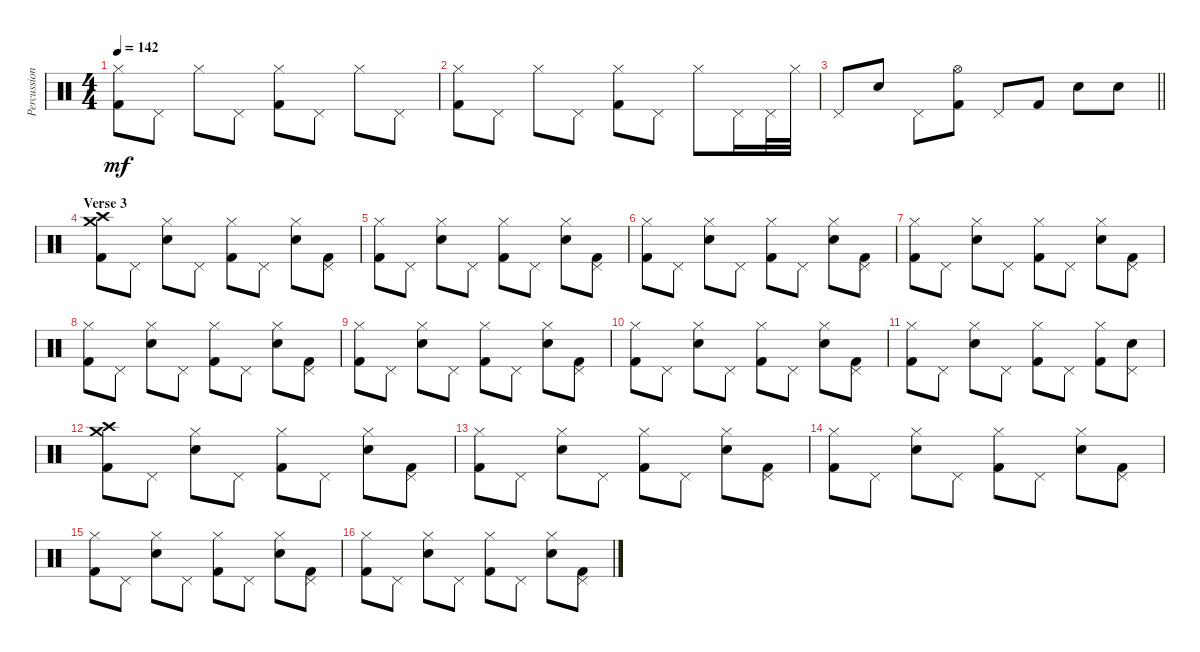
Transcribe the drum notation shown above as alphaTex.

\track ("Percussion" "Percussion") {instrument percussion}
\staff {score}
\articulation defaults
\ts (4 4)
\tempo 142
\clef neutral
\ks c
("Hi-Hat (closed)" "Kick (hit) 2").8{dy mf} "Pedal Hi-Hat (hit)".8 "Hi-Hat (closed)".8 "Pedal Hi-Hat (hit)".8 ("Hi-Hat (closed)" "Kick (hit) 2").8 "Pedal Hi-Hat (hit)".8 "Hi-Hat (closed)".8 "Pedal Hi-Hat (hit)".8 |
("Hi-Hat (closed)" "Kick (hit) 2").8 "Pedal Hi-Hat (hit)".8 "Hi-Hat (closed)".8 "Pedal Hi-Hat (hit)".8 ("Hi-Hat (closed)" "Kick (hit) 2").8 "Pedal Hi-Hat (hit)".8 "Hi-Hat (closed)".8 "Pedal Hi-Hat (hit)".16 "Pedal Hi-Hat (hit)".32 "Hi-Hat (closed)".32 |
\barLineRight lightlight "Pedal Hi-Hat (hit)".8 "Snare (hit) 2".8 "Pedal Hi-Hat (hit)".8
("Hi-Hat (open)" "Kick (hit) 2").8 "Pedal Hi-Hat (hit)".8 "Kick (hit) 2".8 "Snare (hit) 2".8 "Snare (hit) 2".8 |
\section ("" "Verse 3")
("Crash medium (hit)" "Crash high (hit)" "Kick (hit) 2").8 "Pedal Hi-Hat (hit)".8 ("Snare (hit) 2" "Hi-Hat (closed)").8 "Pedal Hi-Hat (hit)".8 ("Hi-Hat (closed)" "Kick (hit) 2").8 "Pedal Hi-Hat (hit)".8 ("Snare (hit) 2" "Hi-Hat (closed)").8 ("Pedal Hi-Hat (hit)" "Kick (hit) 2").8 |
("Hi-Hat (closed)" "Kick (hit) 2").8 "Pedal Hi-Hat (hit)".8 ("Snare (hit) 2" "Hi-Hat (closed)").8 "Pedal Hi-Hat (hit)".8 ("Hi-Hat (closed)" "Kick (hit) 2").8 "Pedal Hi-Hat (hit)".8 ("Snare (hit) 2" "Hi-Hat (closed)").8 ("Pedal Hi-Hat (hit)" "Kick (hit) 2").8 |
("Hi-Hat (closed)" "Kick (hit) 2").8 "Pedal Hi-Hat (hit)".8 ("Snare (hit) 2" "Hi-Hat (closed)").8 "Pedal Hi-Hat (hit)".8 ("Hi-Hat (closed)" "Kick (hit) 2").8 "Pedal Hi-Hat (hit)".8 ("Snare (hit) 2" "Hi-Hat (closed)").8 ("Pedal Hi-Hat (hit)" "Kick (hit) 2").8 |
("Hi-Hat (closed)" "Kick (hit) 2").8 "Pedal Hi-Hat (hit)".8 ("Snare (hit) 2" "Hi-Hat (closed)").8 "Pedal Hi-Hat (hit)".8 ("Hi-Hat (closed)" "Kick (hit) 2").8 "Pedal Hi-Hat (hit)".8 ("Snare (hit) 2" "Hi-Hat (closed)").8 ("Pedal Hi-Hat (hit)" "Kick (hit) 2").8 |
("Hi-Hat (closed)" "Kick (hit) 2").8 "Pedal Hi-Hat (hit)".8 ("Snare (hit) 2" "Hi-Hat (closed)").8 "Pedal Hi-Hat (hit)".8 ("Hi-Hat (closed)" "Kick (hit) 2").8 "Pedal Hi-Hat (hit)".8 ("Snare (hit) 2" "Hi-Hat (closed)").8 ("Pedal Hi-Hat (hit)" "Kick (hit) 2").8 |
("Hi-Hat (closed)" "Kick (hit) 2").8 "Pedal Hi-Hat (hit)".8 ("Snare (hit) 2" "Hi-Hat (closed)").8 "Pedal Hi-Hat (hit)".8 ("Hi-Hat (closed)" "Kick (hit) 2").8 "Pedal Hi-Hat (hit)".8 ("Snare (hit) 2" "Hi-Hat (closed)").8 ("Pedal Hi-Hat (hit)" "Kick (hit) 2").8 |
("Hi-Hat (closed)" "Kick (hit) 2").8 "Pedal Hi-Hat (hit)".8 ("Snare (hit) 2" "Hi-Hat (closed)").8 "Pedal Hi-Hat (hit)".8 ("Hi-Hat (closed)" "Kick (hit) 2").8 "Pedal Hi-Hat (hit)".8 ("Snare (hit) 2" "Hi-Hat (closed)").8 ("Pedal Hi-Hat (hit)" "Kick (hit) 2").8 |
("Hi-Hat (closed)" "Kick (hit) 2").8 "Pedal Hi-Hat (hit)".8 ("Snare (hit) 2" "Hi-Hat (closed)").8 "Pedal Hi-Hat (hit)".8 ("Hi-Hat (closed)" "Kick (hit) 2").8 "Pedal Hi-Hat (hit)".8 ("Hi-Hat (closed)" "Kick (hit) 2").8 ("Snare (hit) 2" "Pedal Hi-Hat (hit)").8 |
("Crash medium (hit)" "Crash high (hit)" "Kick (hit) 2").8 "Pedal Hi-Hat (hit)".8 ("Snare (hit) 2" "Hi-Hat (closed)").8 "Pedal Hi-Hat (hit)".8 ("Hi-Hat (closed)" "Kick (hit) 2").8 "Pedal Hi-Hat (hit)".8 ("Snare (hit) 2" "Hi-Hat (closed)").8 ("Pedal Hi-Hat (hit)" "Kick (hit) 2").8 |
("Hi-Hat (closed)" "Kick (hit) 2").8 "Pedal Hi-Hat (hit)".8 ("Snare (hit) 2" "Hi-Hat (closed)").8 "Pedal Hi-Hat (hit)".8 ("Hi-Hat (closed)" "Kick (hit) 2").8 "Pedal Hi-Hat (hit)".8 ("Snare (hit) 2" "Hi-Hat (closed)").8 ("Pedal Hi-Hat (hit)" "Kick (hit) 2").8 |
("Hi-Hat (closed)" "Kick (hit) 2").8 "Pedal Hi-Hat (hit)".8 ("Snare (hit) 2" "Hi-Hat (closed)").8 "Pedal Hi-Hat (hit)".8 ("Hi-Hat (closed)" "Kick (hit) 2").8 "Pedal Hi-Hat (hit)".8 ("Snare (hit) 2" "Hi-Hat (closed)").8 ("Pedal Hi-Hat (hit)" "Kick (hit) 2").8 |
("Hi-Hat (closed)" "Kick (hit) 2").8 "Pedal Hi-Hat (hit)".8 ("Snare (hit) 2" "Hi-Hat (closed)").8 "Pedal Hi-Hat (hit)".8 ("Hi-Hat (closed)" "Kick (hit) 2").8 "Pedal Hi-Hat (hit)".8 ("Snare (hit) 2" "Hi-Hat (closed)").8 ("Pedal Hi-Hat (hit)" "Kick (hit) 2").8 |
("Hi-Hat (closed)" "Kick (hit) 2").8 "Pedal Hi-Hat (hit)".8 ("Snare (hit) 2" "Hi-Hat (closed)").8 "Pedal Hi-Hat (hit)".8 ("Hi-Hat (closed)" "Kick (hit) 2").8 "Pedal Hi-Hat (hit)".8 ("Snare (hit) 2" "Hi-Hat (closed)").8 ("Pedal Hi-Hat (hit)" "Kick (hit) 2").8
